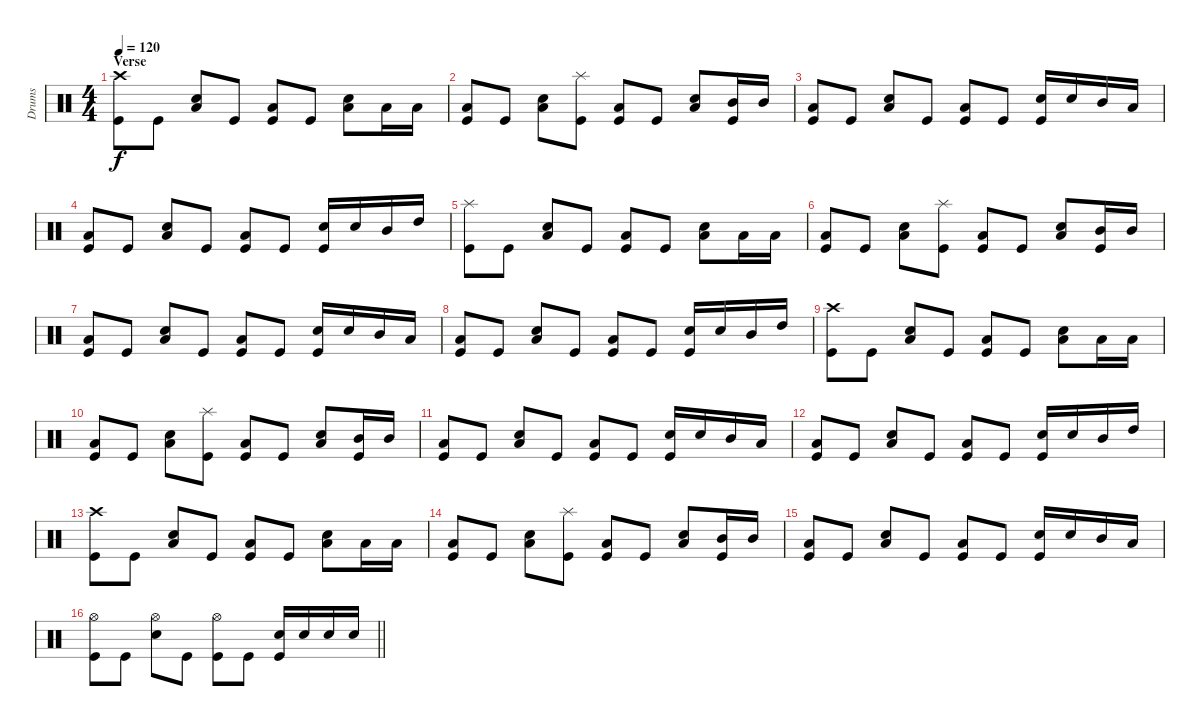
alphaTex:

\track ("Drums" "Drums") {instrument percussion}
\staff {score}
\articulation defaults
\ts (4 4)
\section ("" "Verse")
\tempo 120
\clef neutral
\ks c
("Crash high (hit)" "Kick (hit)").8{dy f} "Kick (hit)".8 ("Low Tom (hit)" "Snare (hit) 2").8 "Kick (hit)".8 ("Low Tom (hit)" "Kick (hit)").8 "Kick (hit)".8 ("Low Tom (hit)" "Snare (hit) 2").8 "Low Tom (hit)".16 "Low Tom (hit)".16 |
("Low Tom (hit)" "Kick (hit)").8 "Kick (hit)".8 ("Low Tom (hit)" "Snare (hit) 2").8 ("Splash (hit)" "Kick (hit)").8 ("Low Tom (hit)" "Kick (hit)").8 "Kick (hit)".8 ("Low Tom (hit)" "Snare (hit) 2").8 ("Mid Tom (hit)" "Kick (hit)").16 "Mid Tom (hit)".16 |
("Low Tom (hit)" "Kick (hit)").8 "Kick (hit)".8 ("Low Tom (hit)" "Snare (hit) 2").8 "Kick (hit)".8 ("Low Tom (hit)" "Kick (hit)").8 "Kick (hit)".8 ("Snare (hit) 2" "Kick (hit)").16 "Snare (hit) 2".16 "Mid Tom (hit)".16 "Low Tom (hit)".16 |
("Low Tom (hit)" "Kick (hit)").8 "Kick (hit)".8 ("Low Tom (hit)" "Snare (hit) 2").8 "Kick (hit)".8 ("Low Tom (hit)" "Kick (hit)").8 "Kick (hit)".8 ("Snare (hit) 2" "Kick (hit)").16 "Snare (hit) 2".16 "Mid Tom (hit)".16 "High Tom (hit)".16 |
("Splash (hit)" "Kick (hit)").8 "Kick (hit)".8 ("Low Tom (hit)" "Snare (hit) 2").8 "Kick (hit)".8 ("Low Tom (hit)" "Kick (hit)").8 "Kick (hit)".8 ("Low Tom (hit)" "Snare (hit) 2").8 "Low Tom (hit)".16 "Low Tom (hit)".16 |
("Low Tom (hit)" "Kick (hit)").8 "Kick (hit)".8 ("Low Tom (hit)" "Snare (hit) 2").8 ("Splash (hit)" "Kick (hit)").8 ("Low Tom (hit)" "Kick (hit)").8 "Kick (hit)".8 ("Low Tom (hit)" "Snare (hit) 2").8 ("Mid Tom (hit)" "Kick (hit)").16 "Mid Tom (hit)".16 |
("Low Tom (hit)" "Kick (hit)").8 "Kick (hit)".8 ("Low Tom (hit)" "Snare (hit) 2").8 "Kick (hit)".8 ("Low Tom (hit)" "Kick (hit)").8 "Kick (hit)".8 ("Snare (hit) 2" "Kick (hit)").16 "Snare (hit) 2".16 "Mid Tom (hit)".16 "Low Tom (hit)".16 |
("Low Tom (hit)" "Kick (hit)").8 "Kick (hit)".8 ("Low Tom (hit)" "Snare (hit) 2").8 "Kick (hit)".8 ("Low Tom (hit)" "Kick (hit)").8 "Kick (hit)".8 ("Snare (hit) 2" "Kick (hit)").16 "Snare (hit) 2".16 "Mid Tom (hit)".16 "High Tom (hit)".16 |
("Crash high (hit)" "Kick (hit)").8 "Kick (hit)".8 ("Low Tom (hit)" "Snare (hit) 2").8 "Kick (hit)".8 ("Low Tom (hit)" "Kick (hit)").8 "Kick (hit)".8 ("Low Tom (hit)" "Snare (hit) 2").8 "Low Tom (hit)".16 "Low Tom (hit)".16 |
("Low Tom (hit)" "Kick (hit)").8 "Kick (hit)".8 ("Low Tom (hit)" "Snare (hit) 2").8 ("Splash (hit)" "Kick (hit)").8 ("Low Tom (hit)" "Kick (hit)").8 "Kick (hit)".8 ("Low Tom (hit)" "Snare (hit) 2").8 ("Mid Tom (hit)" "Kick (hit)").16 "Mid Tom (hit)".16 |
("Low Tom (hit)" "Kick (hit)").8 "Kick (hit)".8 ("Low Tom (hit)" "Snare (hit) 2").8 "Kick (hit)".8 ("Low Tom (hit)" "Kick (hit)").8 "Kick (hit)".8 ("Snare (hit) 2" "Kick (hit)").16 "Snare (hit) 2".16 "Mid Tom (hit)".16 "Low Tom (hit)".16 |
("Low Tom (hit)" "Kick (hit)").8 "Kick (hit)".8 ("Low Tom (hit)" "Snare (hit) 2").8 "Kick (hit)".8 ("Low Tom (hit)" "Kick (hit)").8 "Kick (hit)".8 ("Snare (hit) 2" "Kick (hit)").16 "Snare (hit) 2".16 "Mid Tom (hit)".16 "High Tom (hit)".16 |
("Crash high (hit)" "Kick (hit)").8 "Kick (hit)".8 ("Low Tom (hit)" "Snare (hit) 2").8 "Kick (hit)".8 ("Low Tom (hit)" "Kick (hit)").8 "Kick (hit)".8 ("Low Tom (hit)" "Snare (hit) 2").8 "Low Tom (hit)".16 "Low Tom (hit)".16 |
("Low Tom (hit)" "Kick (hit)").8 "Kick (hit)".8 ("Low Tom (hit)" "Snare (hit) 2").8 ("Splash (hit)" "Kick (hit)").8 ("Low Tom (hit)" "Kick (hit)").8 "Kick (hit)".8 ("Low Tom (hit)" "Snare (hit) 2").8 ("Mid Tom (hit)" "Kick (hit)").16 "Mid Tom (hit)".16 |
("Low Tom (hit)" "Kick (hit)").8 "Kick (hit)".8 ("Low Tom (hit)" "Snare (hit) 2").8 "Kick (hit)".8 ("Low Tom (hit)" "Kick (hit)").8 "Kick (hit)".8 ("Snare (hit) 2" "Kick (hit)").16 "Snare (hit) 2".16 "Mid Tom (hit)".16 "Low Tom (hit)".16 |
\barLineRight lightlight
("Hi-Hat (open)" "Kick (hit)").8 "Kick (hit)".8 ("Hi-Hat (open)" "Snare (hit) 2").8 "Kick (hit)".8 ("Hi-Hat (open)" "Kick (hit)").8 "Kick (hit)".8 ("Snare (hit) 2" "Kick (hit)").16 "Snare (hit) 2".16 "Snare (hit) 2".16 "Snare (hit) 2".16
